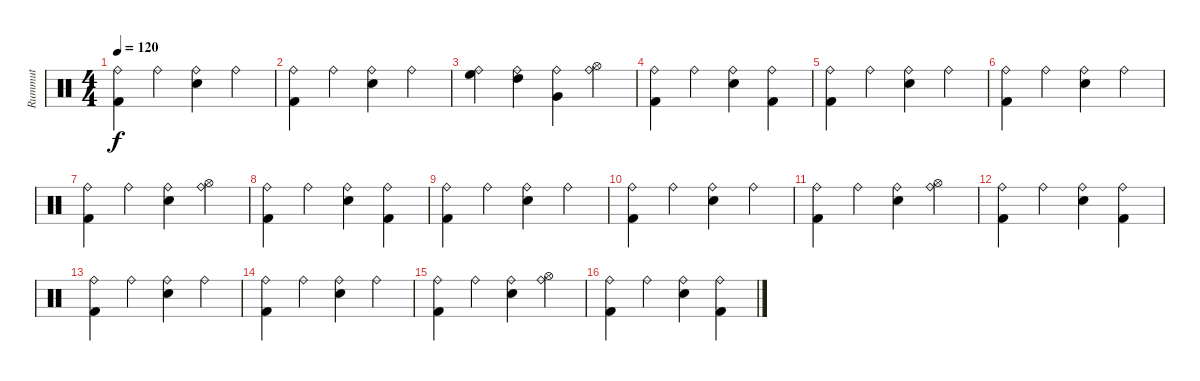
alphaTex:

\track ("Rummut" "Rummut") {instrument percussion}
\staff {score}
\articulation defaults
\ts (4 4)
\tempo 120
\clef neutral
\ks c
("Ride (bell)" "Kick (hit) 2").4{dy f} "Ride (bell)".4 ("Ride (bell)" "Snare (hit) 2").4 "Ride (bell)".4 |
("Ride (bell)" "Kick (hit) 2").4 "Ride (bell)".4 ("Ride (bell)" "Snare (hit) 2").4 "Ride (bell)".4 |
("Ride (bell)" "High Floor Tom (hit)").4 ("Ride (bell)" "High Tom (hit)").4 ("Ride (bell)" "Very Low Tom (hit)").4 ("Ride (bell)" "Hi-Hat (open)").4 |
("Ride (bell)" "Kick (hit) 2").4 "Ride (bell)".4 ("Ride (bell)" "Snare (hit) 2").4 ("Ride (bell)" "Kick (hit) 2").4 |
("Ride (bell)" "Kick (hit) 2").4 "Ride (bell)".4 ("Ride (bell)" "Snare (hit) 2").4 "Ride (bell)".4 |
("Ride (bell)" "Kick (hit) 2").4 "Ride (bell)".4 ("Ride (bell)" "Snare (hit) 2").4 "Ride (bell)".4 |
("Ride (bell)" "Kick (hit) 2").4 "Ride (bell)".4 ("Ride (bell)" "Snare (hit) 2").4 ("Ride (bell)" "Hi-Hat (open)").4 |
("Ride (bell)" "Kick (hit) 2").4 "Ride (bell)".4 ("Ride (bell)" "Snare (hit) 2").4 ("Ride (bell)" "Kick (hit) 2").4 |
("Ride (bell)" "Kick (hit) 2").4 "Ride (bell)".4 ("Ride (bell)" "Snare (hit) 2").4 "Ride (bell)".4 |
("Ride (bell)" "Kick (hit) 2").4 "Ride (bell)".4 ("Ride (bell)" "Snare (hit) 2").4 "Ride (bell)".4 |
("Ride (bell)" "Kick (hit) 2").4 "Ride (bell)".4 ("Ride (bell)" "Snare (hit) 2").4 ("Ride (bell)" "Hi-Hat (open)").4 |
("Ride (bell)" "Kick (hit) 2").4 "Ride (bell)".4 ("Ride (bell)" "Snare (hit) 2").4 ("Ride (bell)" "Kick (hit) 2").4 |
("Ride (bell)" "Kick (hit) 2").4 "Ride (bell)".4 ("Ride (bell)" "Snare (hit) 2").4 "Ride (bell)".4 |
("Ride (bell)" "Kick (hit) 2").4 "Ride (bell)".4 ("Ride (bell)" "Snare (hit) 2").4 "Ride (bell)".4 |
("Ride (bell)" "Kick (hit) 2").4 "Ride (bell)".4 ("Ride (bell)" "Snare (hit) 2").4 ("Ride (bell)" "Hi-Hat (open)").4 |
("Ride (bell)" "Kick (hit) 2").4 "Ride (bell)".4 ("Ride (bell)" "Snare (hit) 2").4 ("Ride (bell)" "Kick (hit) 2").4
